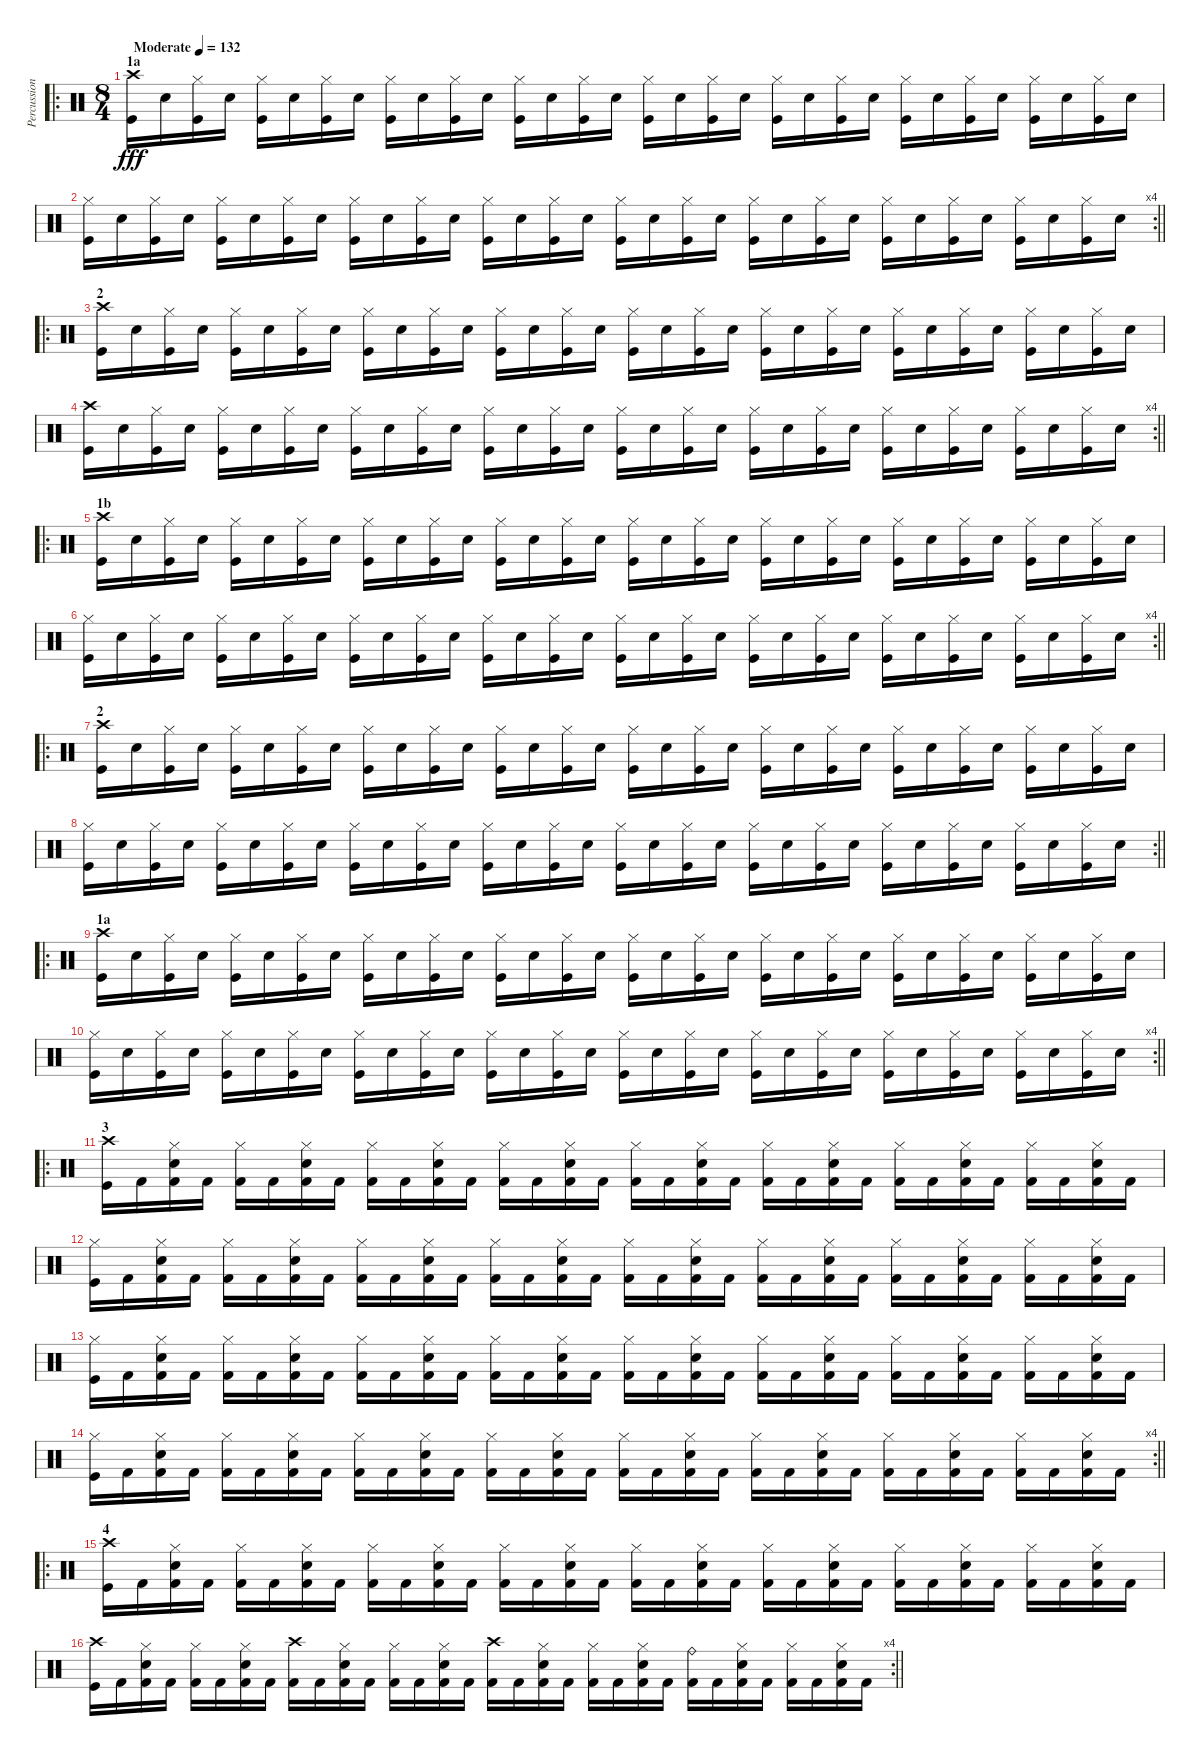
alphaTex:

\track ("Percussion" "Percussion") {instrument percussion}
\staff {score}
\articulation defaults
\ro
\ts (8 4)
\section ("" "1a")
\tempo (132 "Moderate")
\clef neutral
\ks c
("Crash high (hit)" "Kick (hit)").16{dy fff} "Snare (hit) 2".16 ("Hi-Hat (closed)" "Kick (hit)").16 "Snare (hit) 2".16 ("Hi-Hat (closed)" "Kick (hit)").16 "Snare (hit) 2".16 ("Hi-Hat (closed)" "Kick (hit)").16 "Snare (hit) 2".16 ("Hi-Hat (closed)" "Kick (hit)").16 "Snare (hit) 2".16 ("Hi-Hat (closed)" "Kick (hit)").16 "Snare (hit) 2".16 ("Hi-Hat (closed)" "Kick (hit)").16 "Snare (hit) 2".16 ("Hi-Hat (closed)" "Kick (hit)").16 "Snare (hit) 2".16 ("Hi-Hat (closed)" "Kick (hit)").16 "Snare (hit) 2".16 ("Hi-Hat (closed)" "Kick (hit)").16 "Snare (hit) 2".16 ("Hi-Hat (closed)" "Kick (hit)").16 "Snare (hit) 2".16 ("Hi-Hat (closed)" "Kick (hit)").16 "Snare (hit) 2".16 ("Hi-Hat (closed)" "Kick (hit)").16 "Snare (hit) 2".16 ("Hi-Hat (closed)" "Kick (hit)").16 "Snare (hit) 2".16 ("Hi-Hat (closed)" "Kick (hit)").16 "Snare (hit) 2".16 ("Hi-Hat (closed)" "Kick (hit)").16 "Snare (hit) 2".16 |
\rc 4
\barLineRight lightlight
("Hi-Hat (closed)" "Kick (hit)").16 "Snare (hit) 2".16 ("Hi-Hat (closed)" "Kick (hit)").16 "Snare (hit) 2".16 ("Hi-Hat (closed)" "Kick (hit)").16 "Snare (hit) 2".16 ("Hi-Hat (closed)" "Kick (hit)").16 "Snare (hit) 2".16 ("Hi-Hat (closed)" "Kick (hit)").16 "Snare (hit) 2".16 ("Hi-Hat (closed)" "Kick (hit)").16 "Snare (hit) 2".16 ("Hi-Hat (closed)" "Kick (hit)").16 "Snare (hit) 2".16 ("Hi-Hat (closed)" "Kick (hit)").16 "Snare (hit) 2".16 ("Hi-Hat (closed)" "Kick (hit)").16 "Snare (hit) 2".16 ("Hi-Hat (closed)" "Kick (hit)").16 "Snare (hit) 2".16 ("Hi-Hat (closed)" "Kick (hit)").16 "Snare (hit) 2".16 ("Hi-Hat (closed)" "Kick (hit)").16 "Snare (hit) 2".16 ("Hi-Hat (closed)" "Kick (hit)").16 "Snare (hit) 2".16 ("Hi-Hat (closed)" "Kick (hit)").16 "Snare (hit) 2".16 ("Hi-Hat (closed)" "Kick (hit)").16 "Snare (hit) 2".16 ("Hi-Hat (closed)" "Kick (hit)").16 "Snare (hit) 2".16 |
\ro
\section ("" "2")
("Crash high (hit)" "Kick (hit)").16 "Snare (hit) 2".16 ("Hi-Hat (closed)" "Kick (hit)").16 "Snare (hit) 2".16 ("Hi-Hat (closed)" "Kick (hit)").16 "Snare (hit) 2".16 ("Hi-Hat (closed)" "Kick (hit)").16 "Snare (hit) 2".16 ("Hi-Hat (closed)" "Kick (hit)").16 "Snare (hit) 2".16 ("Hi-Hat (closed)" "Kick (hit)").16 "Snare (hit) 2".16 ("Hi-Hat (closed)" "Kick (hit)").16 "Snare (hit) 2".16 ("Hi-Hat (closed)" "Kick (hit)").16 "Snare (hit) 2".16 ("Hi-Hat (closed)" "Kick (hit)").16 "Snare (hit) 2".16 ("Hi-Hat (closed)" "Kick (hit)").16 "Snare (hit) 2".16 ("Hi-Hat (closed)" "Kick (hit)").16 "Snare (hit) 2".16 ("Hi-Hat (closed)" "Kick (hit)").16 "Snare (hit) 2".16 ("Hi-Hat (closed)" "Kick (hit)").16 "Snare (hit) 2".16 ("Hi-Hat (closed)" "Kick (hit)").16 "Snare (hit) 2".16 ("Hi-Hat (closed)" "Kick (hit)").16 "Snare (hit) 2".16 ("Hi-Hat (closed)" "Kick (hit)").16 "Snare (hit) 2".16 |
\rc 4
\barLineRight lightlight
("Crash high (hit)" "Kick (hit)").16 "Snare (hit) 2".16 ("Hi-Hat (closed)" "Kick (hit)").16 "Snare (hit) 2".16 ("Hi-Hat (closed)" "Kick (hit)").16 "Snare (hit) 2".16 ("Hi-Hat (closed)" "Kick (hit)").16 "Snare (hit) 2".16 ("Hi-Hat (closed)" "Kick (hit)").16 "Snare (hit) 2".16 ("Hi-Hat (closed)" "Kick (hit)").16 "Snare (hit) 2".16 ("Hi-Hat (closed)" "Kick (hit)").16 "Snare (hit) 2".16 ("Hi-Hat (closed)" "Kick (hit)").16 "Snare (hit) 2".16 ("Hi-Hat (closed)" "Kick (hit)").16 "Snare (hit) 2".16 ("Hi-Hat (closed)" "Kick (hit)").16 "Snare (hit) 2".16 ("Hi-Hat (closed)" "Kick (hit)").16 "Snare (hit) 2".16 ("Hi-Hat (closed)" "Kick (hit)").16 "Snare (hit) 2".16 ("Hi-Hat (closed)" "Kick (hit)").16 "Snare (hit) 2".16 ("Hi-Hat (closed)" "Kick (hit)").16 "Snare (hit) 2".16 ("Hi-Hat (closed)" "Kick (hit)").16 "Snare (hit) 2".16 ("Hi-Hat (closed)" "Kick (hit)").16 "Snare (hit) 2".16 |
\ro
\section ("" "1b")
("Crash high (hit)" "Kick (hit)").16 "Snare (hit) 2".16 ("Hi-Hat (closed)" "Kick (hit)").16 "Snare (hit) 2".16 ("Hi-Hat (closed)" "Kick (hit)").16 "Snare (hit) 2".16 ("Hi-Hat (closed)" "Kick (hit)").16 "Snare (hit) 2".16 ("Hi-Hat (closed)" "Kick (hit)").16 "Snare (hit) 2".16 ("Hi-Hat (closed)" "Kick (hit)").16 "Snare (hit) 2".16 ("Hi-Hat (closed)" "Kick (hit)").16 "Snare (hit) 2".16 ("Hi-Hat (closed)" "Kick (hit)").16 "Snare (hit) 2".16 ("Hi-Hat (closed)" "Kick (hit)").16 "Snare (hit) 2".16 ("Hi-Hat (closed)" "Kick (hit)").16 "Snare (hit) 2".16 ("Hi-Hat (closed)" "Kick (hit)").16 "Snare (hit) 2".16 ("Hi-Hat (closed)" "Kick (hit)").16 "Snare (hit) 2".16 ("Hi-Hat (closed)" "Kick (hit)").16 "Snare (hit) 2".16 ("Hi-Hat (closed)" "Kick (hit)").16 "Snare (hit) 2".16 ("Hi-Hat (closed)" "Kick (hit)").16 "Snare (hit) 2".16 ("Hi-Hat (closed)" "Kick (hit)").16 "Snare (hit) 2".16 |
\rc 4
\barLineRight lightlight
("Hi-Hat (closed)" "Kick (hit)").16 "Snare (hit) 2".16 ("Hi-Hat (closed)" "Kick (hit)").16 "Snare (hit) 2".16 ("Hi-Hat (closed)" "Kick (hit)").16 "Snare (hit) 2".16 ("Hi-Hat (closed)" "Kick (hit)").16 "Snare (hit) 2".16 ("Hi-Hat (closed)" "Kick (hit)").16 "Snare (hit) 2".16 ("Hi-Hat (closed)" "Kick (hit)").16 "Snare (hit) 2".16 ("Hi-Hat (closed)" "Kick (hit)").16 "Snare (hit) 2".16 ("Hi-Hat (closed)" "Kick (hit)").16 "Snare (hit) 2".16 ("Hi-Hat (closed)" "Kick (hit)").16 "Snare (hit) 2".16 ("Hi-Hat (closed)" "Kick (hit)").16 "Snare (hit) 2".16 ("Hi-Hat (closed)" "Kick (hit)").16 "Snare (hit) 2".16 ("Hi-Hat (closed)" "Kick (hit)").16 "Snare (hit) 2".16 ("Hi-Hat (closed)" "Kick (hit)").16 "Snare (hit) 2".16 ("Hi-Hat (closed)" "Kick (hit)").16 "Snare (hit) 2".16 ("Hi-Hat (closed)" "Kick (hit)").16 "Snare (hit) 2".16 ("Hi-Hat (closed)" "Kick (hit)").16 "Snare (hit) 2".16 |
\ro
\section ("" "2")
("Crash high (hit)" "Kick (hit)").16 "Snare (hit) 2".16 ("Hi-Hat (closed)" "Kick (hit)").16 "Snare (hit) 2".16 ("Hi-Hat (closed)" "Kick (hit)").16 "Snare (hit) 2".16 ("Hi-Hat (closed)" "Kick (hit)").16 "Snare (hit) 2".16 ("Hi-Hat (closed)" "Kick (hit)").16 "Snare (hit) 2".16 ("Hi-Hat (closed)" "Kick (hit)").16 "Snare (hit) 2".16 ("Hi-Hat (closed)" "Kick (hit)").16 "Snare (hit) 2".16 ("Hi-Hat (closed)" "Kick (hit)").16 "Snare (hit) 2".16 ("Hi-Hat (closed)" "Kick (hit)").16 "Snare (hit) 2".16 ("Hi-Hat (closed)" "Kick (hit)").16 "Snare (hit) 2".16 ("Hi-Hat (closed)" "Kick (hit)").16 "Snare (hit) 2".16 ("Hi-Hat (closed)" "Kick (hit)").16 "Snare (hit) 2".16 ("Hi-Hat (closed)" "Kick (hit)").16 "Snare (hit) 2".16 ("Hi-Hat (closed)" "Kick (hit)").16 "Snare (hit) 2".16 ("Hi-Hat (closed)" "Kick (hit)").16 "Snare (hit) 2".16 ("Hi-Hat (closed)" "Kick (hit)").16 "Snare (hit) 2".16 |
\rc 2
\barLineRight lightlight
("Hi-Hat (closed)" "Kick (hit)").16 "Snare (hit) 2".16 ("Hi-Hat (closed)" "Kick (hit)").16 "Snare (hit) 2".16 ("Hi-Hat (closed)" "Kick (hit)").16 "Snare (hit) 2".16 ("Hi-Hat (closed)" "Kick (hit)").16 "Snare (hit) 2".16 ("Hi-Hat (closed)" "Kick (hit)").16 "Snare (hit) 2".16 ("Hi-Hat (closed)" "Kick (hit)").16 "Snare (hit) 2".16 ("Hi-Hat (closed)" "Kick (hit)").16 "Snare (hit) 2".16 ("Hi-Hat (closed)" "Kick (hit)").16 "Snare (hit) 2".16 ("Hi-Hat (closed)" "Kick (hit)").16 "Snare (hit) 2".16 ("Hi-Hat (closed)" "Kick (hit)").16 "Snare (hit) 2".16 ("Hi-Hat (closed)" "Kick (hit)").16 "Snare (hit) 2".16 ("Hi-Hat (closed)" "Kick (hit)").16 "Snare (hit) 2".16 ("Hi-Hat (closed)" "Kick (hit)").16 "Snare (hit) 2".16 ("Hi-Hat (closed)" "Kick (hit)").16 "Snare (hit) 2".16 ("Hi-Hat (closed)" "Kick (hit)").16 "Snare (hit) 2".16 ("Hi-Hat (closed)" "Kick (hit)").16 "Snare (hit) 2".16 |
\ro
\section ("" "1a")
("Crash high (hit)" "Kick (hit)").16 "Snare (hit) 2".16 ("Hi-Hat (closed)" "Kick (hit)").16 "Snare (hit) 2".16 ("Hi-Hat (closed)" "Kick (hit)").16 "Snare (hit) 2".16 ("Hi-Hat (closed)" "Kick (hit)").16 "Snare (hit) 2".16 ("Hi-Hat (closed)" "Kick (hit)").16 "Snare (hit) 2".16 ("Hi-Hat (closed)" "Kick (hit)").16 "Snare (hit) 2".16 ("Hi-Hat (closed)" "Kick (hit)").16 "Snare (hit) 2".16 ("Hi-Hat (closed)" "Kick (hit)").16 "Snare (hit) 2".16 ("Hi-Hat (closed)" "Kick (hit)").16 "Snare (hit) 2".16 ("Hi-Hat (closed)" "Kick (hit)").16 "Snare (hit) 2".16 ("Hi-Hat (closed)" "Kick (hit)").16 "Snare (hit) 2".16 ("Hi-Hat (closed)" "Kick (hit)").16 "Snare (hit) 2".16 ("Hi-Hat (closed)" "Kick (hit)").16 "Snare (hit) 2".16 ("Hi-Hat (closed)" "Kick (hit)").16 "Snare (hit) 2".16 ("Hi-Hat (closed)" "Kick (hit)").16 "Snare (hit) 2".16 ("Hi-Hat (closed)" "Kick (hit)").16 "Snare (hit) 2".16 |
\rc 4
\barLineRight lightlight
("Hi-Hat (closed)" "Kick (hit)").16 "Snare (hit) 2".16 ("Hi-Hat (closed)" "Kick (hit)").16 "Snare (hit) 2".16 ("Hi-Hat (closed)" "Kick (hit)").16 "Snare (hit) 2".16 ("Hi-Hat (closed)" "Kick (hit)").16 "Snare (hit) 2".16 ("Hi-Hat (closed)" "Kick (hit)").16 "Snare (hit) 2".16 ("Hi-Hat (closed)" "Kick (hit)").16 "Snare (hit) 2".16 ("Hi-Hat (closed)" "Kick (hit)").16 "Snare (hit) 2".16 ("Hi-Hat (closed)" "Kick (hit)").16 "Snare (hit) 2".16 ("Hi-Hat (closed)" "Kick (hit)").16 "Snare (hit) 2".16 ("Hi-Hat (closed)" "Kick (hit)").16 "Snare (hit) 2".16 ("Hi-Hat (closed)" "Kick (hit)").16 "Snare (hit) 2".16 ("Hi-Hat (closed)" "Kick (hit)").16 "Snare (hit) 2".16 ("Hi-Hat (closed)" "Kick (hit)").16 "Snare (hit) 2".16 ("Hi-Hat (closed)" "Kick (hit)").16 "Snare (hit) 2".16 ("Hi-Hat (closed)" "Kick (hit)").16 "Snare (hit) 2".16 ("Hi-Hat (closed)" "Kick (hit)").16 "Snare (hit) 2".16 |
\ro
\section ("" "3")
("Crash high (hit)" "Kick (hit)").16 "Kick (hit) 2".16 ("Hi-Hat (closed)" "Snare (hit) 2" "Kick (hit) 2").16 "Kick (hit) 2".16 ("Hi-Hat (closed)" "Kick (hit) 2").16 "Kick (hit) 2".16 ("Hi-Hat (closed)" "Snare (hit) 2" "Kick (hit) 2").16 "Kick (hit) 2".16 ("Hi-Hat (closed)" "Kick (hit) 2").16 "Kick (hit) 2".16 ("Hi-Hat (closed)" "Snare (hit) 2" "Kick (hit) 2").16 "Kick (hit) 2".16 ("Hi-Hat (closed)" "Kick (hit) 2").16 "Kick (hit) 2".16 ("Hi-Hat (closed)" "Snare (hit) 2" "Kick (hit) 2").16 "Kick (hit) 2".16 ("Hi-Hat (closed)" "Kick (hit) 2").16 "Kick (hit) 2".16 ("Hi-Hat (closed)" "Snare (hit) 2" "Kick (hit) 2").16 "Kick (hit) 2".16 ("Hi-Hat (closed)" "Kick (hit) 2").16 "Kick (hit) 2".16 ("Hi-Hat (closed)" "Snare (hit) 2" "Kick (hit) 2").16 "Kick (hit) 2".16 ("Hi-Hat (closed)" "Kick (hit) 2").16 "Kick (hit) 2".16 ("Hi-Hat (closed)" "Snare (hit) 2" "Kick (hit) 2").16 "Kick (hit) 2".16 ("Hi-Hat (closed)" "Kick (hit) 2").16 "Kick (hit) 2".16 ("Hi-Hat (closed)" "Snare (hit) 2" "Kick (hit) 2").16 "Kick (hit) 2".16 |
("Hi-Hat (closed)" "Kick (hit)").16 "Kick (hit) 2".16 ("Hi-Hat (closed)" "Snare (hit) 2" "Kick (hit) 2").16 "Kick (hit) 2".16 ("Hi-Hat (closed)" "Kick (hit) 2").16 "Kick (hit) 2".16 ("Hi-Hat (closed)" "Snare (hit) 2" "Kick (hit) 2").16 "Kick (hit) 2".16 ("Hi-Hat (closed)" "Kick (hit) 2").16 "Kick (hit) 2".16 ("Hi-Hat (closed)" "Snare (hit) 2" "Kick (hit) 2").16 "Kick (hit) 2".16 ("Hi-Hat (closed)" "Kick (hit) 2").16 "Kick (hit) 2".16 ("Hi-Hat (closed)" "Snare (hit) 2" "Kick (hit) 2").16 "Kick (hit) 2".16 ("Hi-Hat (closed)" "Kick (hit) 2").16 "Kick (hit) 2".16 ("Hi-Hat (closed)" "Snare (hit) 2" "Kick (hit) 2").16 "Kick (hit) 2".16 ("Hi-Hat (closed)" "Kick (hit) 2").16 "Kick (hit) 2".16 ("Hi-Hat (closed)" "Snare (hit) 2" "Kick (hit) 2").16 "Kick (hit) 2".16 ("Hi-Hat (closed)" "Kick (hit) 2").16 "Kick (hit) 2".16 ("Hi-Hat (closed)" "Snare (hit) 2" "Kick (hit) 2").16 "Kick (hit) 2".16 ("Hi-Hat (closed)" "Kick (hit) 2").16 "Kick (hit) 2".16 ("Hi-Hat (closed)" "Snare (hit) 2" "Kick (hit) 2").16 "Kick (hit) 2".16 |
("Hi-Hat (closed)" "Kick (hit)").16 "Kick (hit) 2".16 ("Hi-Hat (closed)" "Snare (hit) 2" "Kick (hit) 2").16 "Kick (hit) 2".16 ("Hi-Hat (closed)" "Kick (hit) 2").16 "Kick (hit) 2".16 ("Hi-Hat (closed)" "Snare (hit) 2" "Kick (hit) 2").16 "Kick (hit) 2".16 ("Hi-Hat (closed)" "Kick (hit) 2").16 "Kick (hit) 2".16 ("Hi-Hat (closed)" "Snare (hit) 2" "Kick (hit) 2").16 "Kick (hit) 2".16 ("Hi-Hat (closed)" "Kick (hit) 2").16 "Kick (hit) 2".16 ("Hi-Hat (closed)" "Snare (hit) 2" "Kick (hit) 2").16 "Kick (hit) 2".16 ("Hi-Hat (closed)" "Kick (hit) 2").16 "Kick (hit) 2".16 ("Hi-Hat (closed)" "Snare (hit) 2" "Kick (hit) 2").16 "Kick (hit) 2".16 ("Hi-Hat (closed)" "Kick (hit) 2").16 "Kick (hit) 2".16 ("Hi-Hat (closed)" "Snare (hit) 2" "Kick (hit) 2").16 "Kick (hit) 2".16 ("Hi-Hat (closed)" "Kick (hit) 2").16 "Kick (hit) 2".16 ("Hi-Hat (closed)" "Snare (hit) 2" "Kick (hit) 2").16 "Kick (hit) 2".16 ("Hi-Hat (closed)" "Kick (hit) 2").16 "Kick (hit) 2".16 ("Hi-Hat (closed)" "Snare (hit) 2" "Kick (hit) 2").16 "Kick (hit) 2".16 |
\rc 4
\barLineRight lightlight
("Hi-Hat (closed)" "Kick (hit)").16 "Kick (hit) 2".16 ("Hi-Hat (closed)" "Snare (hit) 2" "Kick (hit) 2").16 "Kick (hit) 2".16 ("Hi-Hat (closed)" "Kick (hit) 2").16 "Kick (hit) 2".16 ("Hi-Hat (closed)" "Snare (hit) 2" "Kick (hit) 2").16 "Kick (hit) 2".16 ("Hi-Hat (closed)" "Kick (hit) 2").16 "Kick (hit) 2".16 ("Hi-Hat (closed)" "Snare (hit) 2" "Kick (hit) 2").16 "Kick (hit) 2".16 ("Hi-Hat (closed)" "Kick (hit) 2").16 "Kick (hit) 2".16 ("Hi-Hat (closed)" "Snare (hit) 2" "Kick (hit) 2").16 "Kick (hit) 2".16 ("Hi-Hat (closed)" "Kick (hit) 2").16 "Kick (hit) 2".16 ("Hi-Hat (closed)" "Snare (hit) 2" "Kick (hit) 2").16 "Kick (hit) 2".16 ("Hi-Hat (closed)" "Kick (hit) 2").16 "Kick (hit) 2".16 ("Hi-Hat (closed)" "Snare (hit) 2" "Kick (hit) 2").16 "Kick (hit) 2".16 ("Hi-Hat (closed)" "Kick (hit) 2").16 "Kick (hit) 2".16 ("Hi-Hat (closed)" "Snare (hit) 2" "Kick (hit) 2").16 "Kick (hit) 2".16 ("Hi-Hat (closed)" "Kick (hit) 2").16 "Kick (hit) 2".16 ("Hi-Hat (closed)" "Snare (hit) 2" "Kick (hit) 2").16 "Kick (hit) 2".16 |
\ro
\section ("" "4")
("Crash high (hit)" "Kick (hit)").16 "Kick (hit) 2".16 ("Hi-Hat (closed)" "Snare (hit) 2" "Kick (hit) 2").16 "Kick (hit) 2".16 ("Hi-Hat (closed)" "Kick (hit) 2").16 "Kick (hit) 2".16 ("Hi-Hat (closed)" "Snare (hit) 2" "Kick (hit) 2").16 "Kick (hit) 2".16 ("Hi-Hat (closed)" "Kick (hit) 2").16 "Kick (hit) 2".16 ("Hi-Hat (closed)" "Snare (hit) 2" "Kick (hit) 2").16 "Kick (hit) 2".16 ("Hi-Hat (closed)" "Kick (hit) 2").16 "Kick (hit) 2".16 ("Hi-Hat (closed)" "Snare (hit) 2" "Kick (hit) 2").16 "Kick (hit) 2".16 ("Hi-Hat (closed)" "Kick (hit) 2").16 "Kick (hit) 2".16 ("Hi-Hat (closed)" "Snare (hit) 2" "Kick (hit) 2").16 "Kick (hit) 2".16 ("Hi-Hat (closed)" "Kick (hit) 2").16 "Kick (hit) 2".16 ("Hi-Hat (closed)" "Snare (hit) 2" "Kick (hit) 2").16 "Kick (hit) 2".16 ("Hi-Hat (closed)" "Kick (hit) 2").16 "Kick (hit) 2".16 ("Hi-Hat (closed)" "Snare (hit) 2" "Kick (hit) 2").16 "Kick (hit) 2".16 ("Hi-Hat (closed)" "Kick (hit) 2").16 "Kick (hit) 2".16 ("Hi-Hat (closed)" "Snare (hit) 2" "Kick (hit) 2").16 "Kick (hit) 2".16 |
\rc 4
\barLineRight lightlight
("Crash high (hit)" "Kick (hit)").16 "Kick (hit) 2".16 ("Hi-Hat (closed)" "Snare (hit) 2" "Kick (hit) 2").16 "Kick (hit) 2".16 ("Hi-Hat (closed)" "Kick (hit) 2").16 "Kick (hit) 2".16 ("Hi-Hat (closed)" "Snare (hit) 2" "Kick (hit) 2").16 "Kick (hit) 2".16 ("Crash high (hit)" "Kick (hit) 2").16 "Kick (hit) 2".16 ("Hi-Hat (closed)" "Snare (hit) 2" "Kick (hit) 2").16 "Kick (hit) 2".16 ("Hi-Hat (closed)" "Kick (hit) 2").16 "Kick (hit) 2".16 ("Hi-Hat (closed)" "Snare (hit) 2" "Kick (hit) 2").16 "Kick (hit) 2".16 ("Crash high (hit)" "Kick (hit) 2").16 "Kick (hit) 2".16 ("Hi-Hat (closed)" "Snare (hit) 2" "Kick (hit) 2").16 "Kick (hit) 2".16 ("Hi-Hat (closed)" "Kick (hit) 2").16 "Kick (hit) 2".16 ("Hi-Hat (closed)" "Snare (hit) 2" "Kick (hit) 2").16 "Kick (hit) 2".16 ("Ride (bell)" "Kick (hit) 2").16 "Kick (hit) 2".16 ("Hi-Hat (closed)" "Snare (hit) 2" "Kick (hit) 2").16 "Kick (hit) 2".16 ("Hi-Hat (closed)" "Kick (hit) 2").16 "Kick (hit) 2".16 ("Hi-Hat (closed)" "Snare (hit) 2" "Kick (hit) 2").16 "Kick (hit) 2".16
